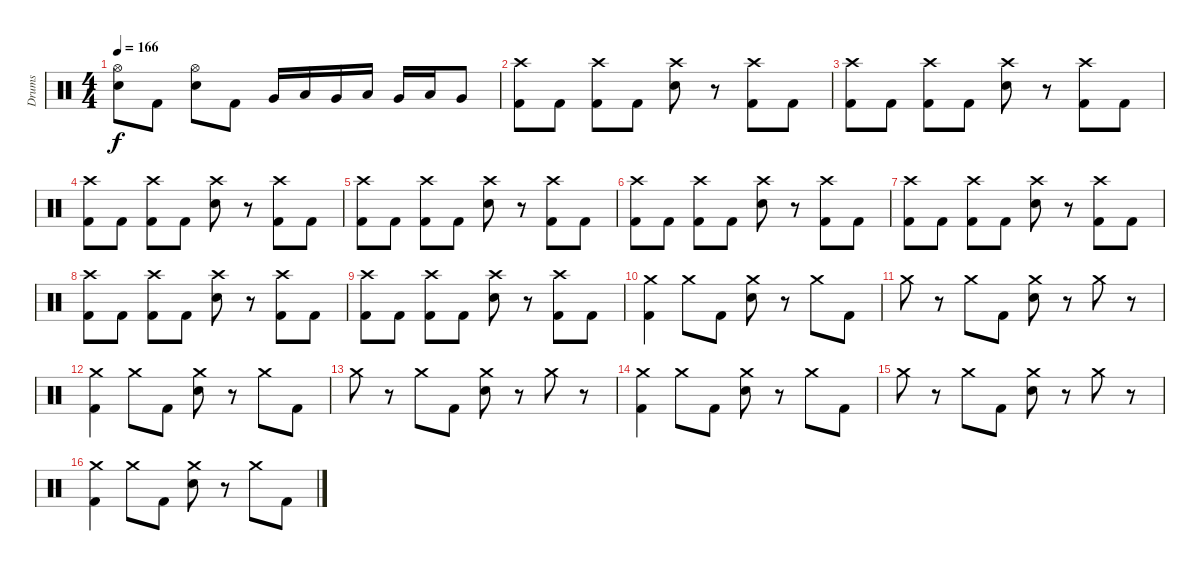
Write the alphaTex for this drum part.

\track ("Drums" "Drums") {instrument percussion}
\staff {score}
\articulation defaults
\ts (4 4)
\tempo 166
\clef neutral
\ks c
("Hi-Hat (open)" "Snare (hit) 2").8{dy f} "Kick (hit) 2".8 ("Hi-Hat (open)" "Snare (hit) 2").8 "Kick (hit) 2".8 "Very Low Tom (hit)".16 "Low Tom (hit)".16 "Very Low Tom (hit)".16 "Low Tom (hit)".16 "Very Low Tom (hit)".16 "Low Tom (hit)".16 "Very Low Tom (hit)".8 |
("Crash high (hit)" "Kick (hit) 2").8 "Kick (hit) 2".8 ("Crash high (hit)" "Kick (hit) 2").8 "Kick (hit) 2".8 ("Crash high (hit)" "Snare (hit) 2").8 r.8 ("Crash high (hit)" "Kick (hit) 2").8 "Kick (hit) 2".8 |
("Crash high (hit)" "Kick (hit) 2").8 "Kick (hit) 2".8 ("Crash high (hit)" "Kick (hit) 2").8 "Kick (hit) 2".8 ("Crash high (hit)" "Snare (hit) 2").8 r.8 ("Crash high (hit)" "Kick (hit) 2").8 "Kick (hit) 2".8 |
("Crash high (hit)" "Kick (hit) 2").8 "Kick (hit) 2".8 ("Crash high (hit)" "Kick (hit) 2").8 "Kick (hit) 2".8 ("Crash high (hit)" "Snare (hit) 2").8 r.8 ("Crash high (hit)" "Kick (hit) 2").8 "Kick (hit) 2".8 |
("Crash high (hit)" "Kick (hit) 2").8 "Kick (hit) 2".8 ("Crash high (hit)" "Kick (hit) 2").8 "Kick (hit) 2".8 ("Crash high (hit)" "Snare (hit) 2").8 r.8 ("Crash high (hit)" "Kick (hit) 2").8 "Kick (hit) 2".8 |
("Crash high (hit)" "Kick (hit) 2").8 "Kick (hit) 2".8 ("Crash high (hit)" "Kick (hit) 2").8 "Kick (hit) 2".8 ("Crash high (hit)" "Snare (hit) 2").8 r.8 ("Crash high (hit)" "Kick (hit) 2").8 "Kick (hit) 2".8 |
("Crash high (hit)" "Kick (hit) 2").8 "Kick (hit) 2".8 ("Crash high (hit)" "Kick (hit) 2").8 "Kick (hit) 2".8 ("Crash high (hit)" "Snare (hit) 2").8 r.8 ("Crash high (hit)" "Kick (hit) 2").8 "Kick (hit) 2".8 |
("Crash high (hit)" "Kick (hit) 2").8 "Kick (hit) 2".8 ("Crash high (hit)" "Kick (hit) 2").8 "Kick (hit) 2".8 ("Crash high (hit)" "Snare (hit) 2").8 r.8 ("Crash high (hit)" "Kick (hit) 2").8 "Kick (hit) 2".8 |
("Crash high (hit)" "Kick (hit) 2").8 "Kick (hit) 2".8 ("Crash high (hit)" "Kick (hit) 2").8 "Kick (hit) 2".8 ("Crash high (hit)" "Snare (hit) 2").8 r.8 ("Crash high (hit)" "Kick (hit) 2").8 "Kick (hit) 2".8 |
("Crash medium (hit)" "Kick (hit) 2").4 "Crash medium (hit)".8 "Kick (hit) 2".8 ("Crash medium (hit)" "Snare (hit) 2").8 r.8 "Crash medium (hit)".8 "Kick (hit) 2".8 |
"Crash medium (hit)".8 r.8 "Crash medium (hit)".8 "Kick (hit) 2".8 ("Crash medium (hit)" "Snare (hit) 2").8 r.8 "Crash medium (hit)".8 r.8 |
("Crash medium (hit)" "Kick (hit) 2").4 "Crash medium (hit)".8 "Kick (hit) 2".8 ("Crash medium (hit)" "Snare (hit) 2").8 r.8 "Crash medium (hit)".8 "Kick (hit) 2".8 |
"Crash medium (hit)".8 r.8 "Crash medium (hit)".8 "Kick (hit) 2".8 ("Crash medium (hit)" "Snare (hit) 2").8 r.8 "Crash medium (hit)".8 r.8 |
("Crash medium (hit)" "Kick (hit) 2").4 "Crash medium (hit)".8 "Kick (hit) 2".8 ("Crash medium (hit)" "Snare (hit) 2").8 r.8 "Crash medium (hit)".8 "Kick (hit) 2".8 |
"Crash medium (hit)".8 r.8 "Crash medium (hit)".8 "Kick (hit) 2".8 ("Crash medium (hit)" "Snare (hit) 2").8 r.8 "Crash medium (hit)".8 r.8 |
("Crash medium (hit)" "Kick (hit) 2").4 "Crash medium (hit)".8 "Kick (hit) 2".8 ("Crash medium (hit)" "Snare (hit) 2").8 r.8 "Crash medium (hit)".8 "Kick (hit) 2".8
